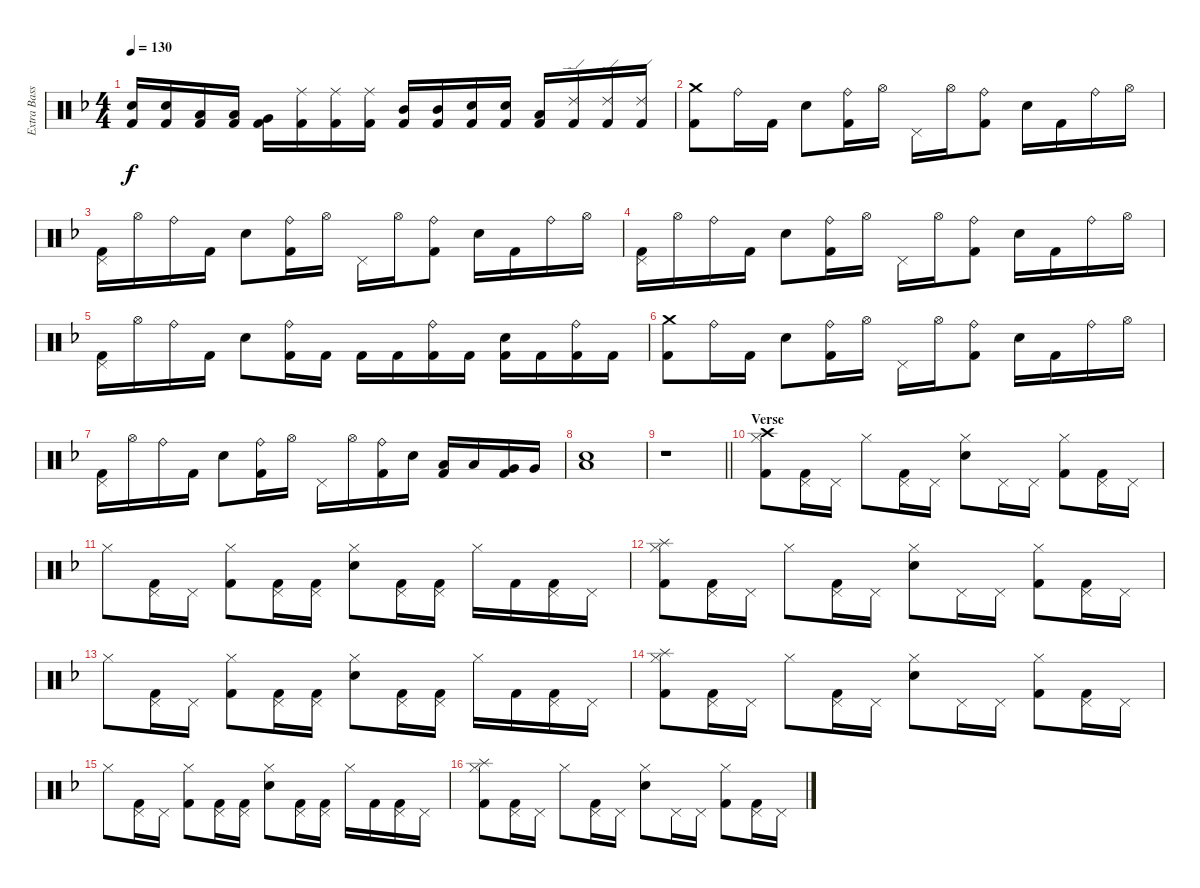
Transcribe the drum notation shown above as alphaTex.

\track ("Extra BassDrum" "Extra Bass") {instrument percussion}
\staff {score}
\articulation defaults
\ts (4 4)
\tempo 130
\clef neutral
\ks f
("Snare (hit) 2" "Kick (hit) 2").16{dy f} ("Snare (hit) 2" "Kick (hit) 2").16 ("Low Tom (hit)" "Kick (hit) 2").16 ("Low Tom (hit)" "Kick (hit) 2").16 ("Very Low Tom (hit)" "Kick (hit) 2").16 ("Ride (middle)" "Kick (hit) 2").16 ("Ride (middle)" "Kick (hit) 2").16 ("Ride (middle)" "Kick (hit) 2").16 ("Mid Tom (hit)" "Kick (hit) 2").16 ("Mid Tom (hit)" "Kick (hit) 2").16 ("Snare (hit) 2" "Kick (hit) 2").16 ("Snare (hit) 2" "Kick (hit) 2").16 ("Low Tom (hit)" "Kick (hit) 2").16 ("Ride (edge) 2" "Kick (hit) 2").16 ("Ride (edge) 2" "Kick (hit) 2").16 ("Ride (edge) 2" "Kick (hit) 2").16 |
("Crash medium (hit)" "Kick (hit) 2").8 "Ride (bell)".16 "Kick (hit) 2".16 "Snare (hit) 2".8 ("Ride (bell)" "Kick (hit) 2").16 "Hi-Hat (open)".16 "Pedal Hi-Hat (hit)".16 "Hi-Hat (open)".16 ("Ride (bell)" "Kick (hit) 2").8 "Snare (hit) 2".16 "Kick (hit) 2".16 "Ride (bell)".16 "Hi-Hat (open)".16 |
("Pedal Hi-Hat (hit)" "Kick (hit) 2").16 "Hi-Hat (open)".16 "Ride (bell)".16 "Kick (hit) 2".16 "Snare (hit) 2".8 ("Ride (bell)" "Kick (hit) 2").16 "Hi-Hat (open)".16 "Pedal Hi-Hat (hit)".16 "Hi-Hat (open)".16 ("Ride (bell)" "Kick (hit) 2").8 "Snare (hit) 2".16 "Kick (hit) 2".16 "Ride (bell)".16 "Hi-Hat (open)".16 |
("Pedal Hi-Hat (hit)" "Kick (hit) 2").16 "Hi-Hat (open)".16 "Ride (bell)".16 "Kick (hit) 2".16 "Snare (hit) 2".8 ("Ride (bell)" "Kick (hit) 2").16 "Hi-Hat (open)".16 "Pedal Hi-Hat (hit)".16 "Hi-Hat (open)".16 ("Ride (bell)" "Kick (hit) 2").8 "Snare (hit) 2".16 "Kick (hit) 2".16 "Ride (bell)".16 "Hi-Hat (open)".16 |
("Pedal Hi-Hat (hit)" "Kick (hit) 2").16 "Hi-Hat (open)".16 "Ride (bell)".16 "Kick (hit) 2".16 "Snare (hit) 2".8 ("Ride (bell)" "Kick (hit) 2").16 "Kick (hit) 2".16 "Kick (hit) 2".16 "Kick (hit) 2".16 ("Ride (bell)" "Kick (hit) 2").16 "Kick (hit) 2".16 ("Snare (hit) 2" "Kick (hit) 2").16 "Kick (hit) 2".16 ("Ride (bell)" "Kick (hit) 2").16 "Kick (hit) 2".16 |
("Crash medium (hit)" "Kick (hit) 2").8 "Ride (bell)".16 "Kick (hit) 2".16 "Snare (hit) 2".8 ("Ride (bell)" "Kick (hit) 2").16 "Hi-Hat (open)".16 "Pedal Hi-Hat (hit)".16 "Hi-Hat (open)".16 ("Ride (bell)" "Kick (hit) 2").8 "Snare (hit) 2".16 "Kick (hit) 2".16 "Ride (bell)".16 "Hi-Hat (open)".16 |
("Pedal Hi-Hat (hit)" "Kick (hit) 2").16 "Hi-Hat (open)".16 "Ride (bell)".16 "Kick (hit) 2".16 "Snare (hit) 2".8 ("Ride (bell)" "Kick (hit) 2").16 "Hi-Hat (open)".16 "Pedal Hi-Hat (hit)".16 "Hi-Hat (open)".16 ("Ride (bell)" "Kick (hit) 2").16 "Snare (hit) 2".16 ("Low Tom (hit)" "Kick (hit) 2").16 "Low Tom (hit)".16 ("Very Low Tom (hit)" "Kick (hit) 2").16 "Very Low Tom (hit)".16 |
("Low Floor Tom (hit)" "Snare (hit) 2").1 |
\barLineRight lightlight
r.1 |
\section ("" "Verse")
("Crash high (hit)" "Hi-Hat (closed)" "Kick (hit) 2").8 ("Pedal Hi-Hat (hit)" "Kick (hit) 2").16 "Pedal Hi-Hat (hit)".16 "Hi-Hat (closed)".8 ("Pedal Hi-Hat (hit)" "Kick (hit) 2").16 "Pedal Hi-Hat (hit)".16 ("Hi-Hat (closed)" "Snare (hit) 2").8 "Pedal Hi-Hat (hit)".16 "Pedal Hi-Hat (hit)".16 ("Hi-Hat (closed)" "Kick (hit) 2").8 ("Pedal Hi-Hat (hit)" "Kick (hit) 2").16 "Pedal Hi-Hat (hit)".16 |
"Hi-Hat (closed)".8 ("Pedal Hi-Hat (hit)" "Kick (hit) 2").16 "Pedal Hi-Hat (hit)".16 ("Hi-Hat (closed)" "Kick (hit) 2").8 ("Pedal Hi-Hat (hit)" "Kick (hit) 2").16 ("Pedal Hi-Hat (hit)" "Kick (hit) 2").16 ("Hi-Hat (closed)" "Snare (hit) 2").8 ("Pedal Hi-Hat (hit)" "Kick (hit) 2").16 ("Pedal Hi-Hat (hit)" "Kick (hit) 2").16 "Hi-Hat (closed)".16 "Kick (hit) 2".16 ("Pedal Hi-Hat (hit)" "Kick (hit) 2").16 "Pedal Hi-Hat (hit)".16 |
("Splash (hit)" "Hi-Hat (closed)" "Kick (hit) 2").8 ("Pedal Hi-Hat (hit)" "Kick (hit) 2").16 "Pedal Hi-Hat (hit)".16 "Hi-Hat (closed)".8 ("Pedal Hi-Hat (hit)" "Kick (hit) 2").16 "Pedal Hi-Hat (hit)".16 ("Hi-Hat (closed)" "Snare (hit) 2").8 "Pedal Hi-Hat (hit)".16 "Pedal Hi-Hat (hit)".16 ("Hi-Hat (closed)" "Kick (hit) 2").8 ("Pedal Hi-Hat (hit)" "Kick (hit) 2").16 "Pedal Hi-Hat (hit)".16 |
"Hi-Hat (closed)".8 ("Pedal Hi-Hat (hit)" "Kick (hit) 2").16 "Pedal Hi-Hat (hit)".16 ("Hi-Hat (closed)" "Kick (hit) 2").8 ("Pedal Hi-Hat (hit)" "Kick (hit) 2").16 ("Pedal Hi-Hat (hit)" "Kick (hit) 2").16 ("Hi-Hat (closed)" "Snare (hit) 2").8 ("Pedal Hi-Hat (hit)" "Kick (hit) 2").16 ("Pedal Hi-Hat (hit)" "Kick (hit) 2").16 "Hi-Hat (closed)".16 "Kick (hit) 2".16 ("Pedal Hi-Hat (hit)" "Kick (hit) 2").16 "Pedal Hi-Hat (hit)".16 |
("Splash (hit)" "Hi-Hat (closed)" "Kick (hit) 2").8 ("Pedal Hi-Hat (hit)" "Kick (hit) 2").16 "Pedal Hi-Hat (hit)".16 "Hi-Hat (closed)".8 ("Pedal Hi-Hat (hit)" "Kick (hit) 2").16 "Pedal Hi-Hat (hit)".16 ("Hi-Hat (closed)" "Snare (hit) 2").8 "Pedal Hi-Hat (hit)".16 "Pedal Hi-Hat (hit)".16 ("Hi-Hat (closed)" "Kick (hit) 2").8 ("Pedal Hi-Hat (hit)" "Kick (hit) 2").16 "Pedal Hi-Hat (hit)".16 |
"Hi-Hat (closed)".8 ("Pedal Hi-Hat (hit)" "Kick (hit) 2").16 "Pedal Hi-Hat (hit)".16 ("Hi-Hat (closed)" "Kick (hit) 2").8 ("Pedal Hi-Hat (hit)" "Kick (hit) 2").16 ("Pedal Hi-Hat (hit)" "Kick (hit) 2").16 ("Hi-Hat (closed)" "Snare (hit) 2").8 ("Pedal Hi-Hat (hit)" "Kick (hit) 2").16 ("Pedal Hi-Hat (hit)" "Kick (hit) 2").16 "Hi-Hat (closed)".16 "Kick (hit) 2".16 ("Pedal Hi-Hat (hit)" "Kick (hit) 2").16 "Pedal Hi-Hat (hit)".16 |
("Splash (hit)" "Hi-Hat (closed)" "Kick (hit) 2").8 ("Pedal Hi-Hat (hit)" "Kick (hit) 2").16 "Pedal Hi-Hat (hit)".16 "Hi-Hat (closed)".8 ("Pedal Hi-Hat (hit)" "Kick (hit) 2").16 "Pedal Hi-Hat (hit)".16 ("Hi-Hat (closed)" "Snare (hit) 2").8 "Pedal Hi-Hat (hit)".16 "Pedal Hi-Hat (hit)".16 ("Hi-Hat (closed)" "Kick (hit) 2").8 ("Pedal Hi-Hat (hit)" "Kick (hit) 2").16 "Pedal Hi-Hat (hit)".16
